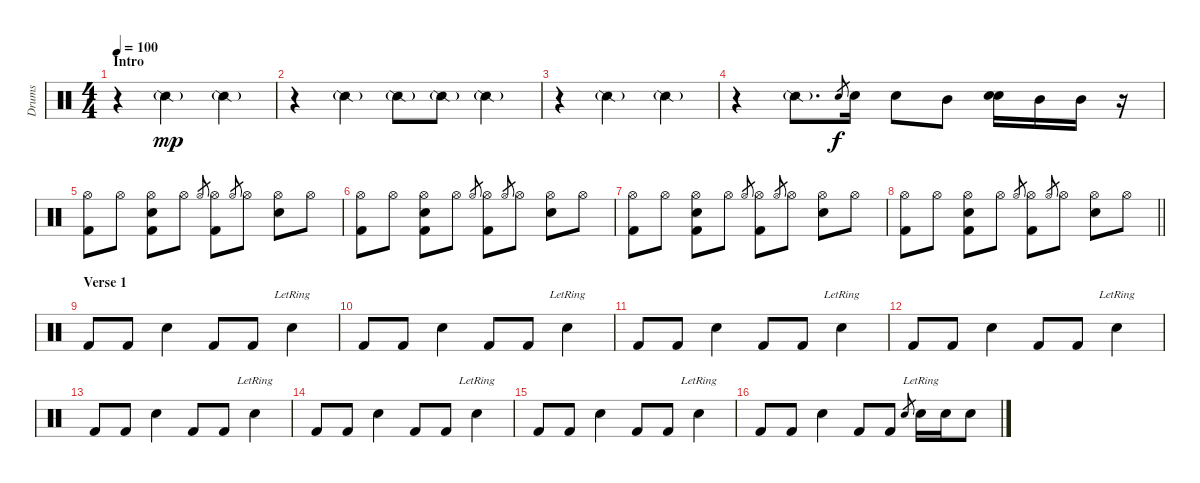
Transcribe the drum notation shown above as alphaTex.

\track ("Drums" "Drums") {instrument percussion}
\staff {score}
\articulation defaults
\ts (4 4)
\section ("" "Intro")
\tempo 100
\clef neutral
\ks c
r.4{dy mp volume 6} "Snare (side stick) 2"{g}.2 "Snare (side stick) 2"{g}.4 |
r.4 "Snare (side stick) 2"{g}.4 "Snare (side stick) 2"{g}.8 "Snare (side stick) 2"{g}.8 "Snare (side stick) 2"{g}.4 |
r.4 "Snare (side stick) 2"{g}.2 "Snare (side stick) 2"{g}.4 |
r.4 "Snare (side stick) 2"{g}.8{d} "Electric Snare (hit)".8{gr dy f} "Electric Snare (hit)".16{volume 12} "Electric Snare (hit)".8 "Mid Tom (hit)".8 ("Electric Snare (hit)" "Electric Snare (hit)").16 "Mid Tom (hit)".16 "Mid Tom (hit)".16 r.16 |
("Hi-Hat (open)" "Kick (hit) 2").8 "Hi-Hat (open)".8 ("Electric Snare (hit)" "Hi-Hat (open)" "Kick (hit) 2").8 "Hi-Hat (open)".8 "Hi-Hat (open)".8{gr} ("Hi-Hat (open)" "Kick (hit) 2").8 "Hi-Hat (open)".8{gr} "Hi-Hat (open)".8 ("Electric Snare (hit)" "Hi-Hat (open)").8 "Hi-Hat (open)".8 |
("Hi-Hat (open)" "Kick (hit) 2").8 "Hi-Hat (open)".8 ("Electric Snare (hit)" "Hi-Hat (open)" "Kick (hit) 2").8 "Hi-Hat (open)".8 "Hi-Hat (open)".8{gr} ("Hi-Hat (open)" "Kick (hit) 2").8 "Hi-Hat (open)".8{gr} "Hi-Hat (open)".8 ("Electric Snare (hit)" "Hi-Hat (open)").8 "Hi-Hat (open)".8 |
("Hi-Hat (open)" "Kick (hit) 2").8 "Hi-Hat (open)".8 ("Electric Snare (hit)" "Hi-Hat (open)" "Kick (hit) 2").8 "Hi-Hat (open)".8 "Hi-Hat (open)".8{gr} ("Hi-Hat (open)" "Kick (hit) 2").8 "Hi-Hat (open)".8{gr} "Hi-Hat (open)".8 ("Electric Snare (hit)" "Hi-Hat (open)").8 "Hi-Hat (open)".8 |
\barLineRight lightlight
("Hi-Hat (open)" "Kick (hit) 2").8 "Hi-Hat (open)".8 ("Electric Snare (hit)" "Hi-Hat (open)" "Kick (hit) 2").8 "Hi-Hat (open)".8 "Hi-Hat (open)".8{gr} ("Hi-Hat (open)" "Kick (hit) 2").8 "Hi-Hat (open)".8{gr} "Hi-Hat (open)".8 ("Electric Snare (hit)" "Hi-Hat (open)").8 "Hi-Hat (open)".8 |
\section ("" "Verse 1")
"Kick (hit) 2".8 "Kick (hit) 2".8 "Electric Snare (hit)".4 "Kick (hit) 2".8 "Kick (hit) 2".8 "Electric Snare (hit)"{lr}.4 |
"Kick (hit) 2".8 "Kick (hit) 2".8 "Electric Snare (hit)".4 "Kick (hit) 2".8 "Kick (hit) 2".8 "Electric Snare (hit)"{lr}.4 |
"Kick (hit) 2".8 "Kick (hit) 2".8 "Electric Snare (hit)".4 "Kick (hit) 2".8 "Kick (hit) 2".8 "Electric Snare (hit)"{lr}.4 |
"Kick (hit) 2".8 "Kick (hit) 2".8 "Electric Snare (hit)".4 "Kick (hit) 2".8 "Kick (hit) 2".8 "Electric Snare (hit)"{lr}.4 |
"Kick (hit) 2".8 "Kick (hit) 2".8 "Electric Snare (hit)".4 "Kick (hit) 2".8 "Kick (hit) 2".8 "Electric Snare (hit)"{lr}.4 |
"Kick (hit) 2".8 "Kick (hit) 2".8 "Electric Snare (hit)".4 "Kick (hit) 2".8 "Kick (hit) 2".8 "Electric Snare (hit)"{lr}.4 |
"Kick (hit) 2".8 "Kick (hit) 2".8 "Electric Snare (hit)".4 "Kick (hit) 2".8 "Kick (hit) 2".8 "Electric Snare (hit)"{lr}.4 |
"Kick (hit) 2".8 "Kick (hit) 2".8 "Electric Snare (hit)".4 "Kick (hit) 2".8 "Kick (hit) 2".8 "Electric Snare (hit)".8{gr} "Electric Snare (hit)"{lr}.16 "Electric Snare (hit)".16 "Electric Snare (hit)".8
